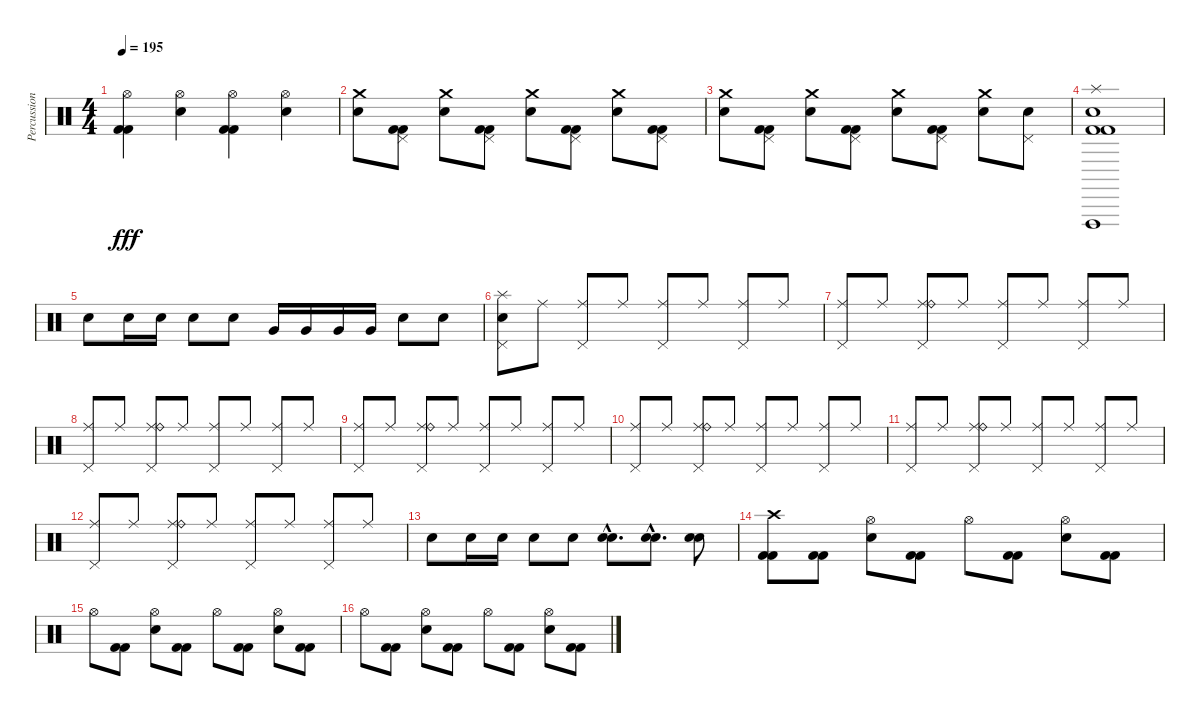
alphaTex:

\track ("Percussions" "Percussion") {instrument percussion}
\staff {score}
\articulation defaults
\ts (4 4)
\tempo 195
\clef neutral
\ks c
("Hi-Hat (open)" "Kick (hit) 2" "Kick (hit) 2").4{dy fff} ("Hi-Hat (open)" "Electric Snare (hit)").4 ("Hi-Hat (open)" "Kick (hit) 2" "Kick (hit) 2").4 ("Hi-Hat (open)" "Electric Snare (hit)").4 |
("Crash medium (hit)" "Electric Snare (hit)").8 ("Pedal Hi-Hat (hit)" "Kick (hit) 2" "Kick (hit) 2").8 ("Crash medium (hit)" "Electric Snare (hit)").8 ("Pedal Hi-Hat (hit)" "Kick (hit) 2" "Kick (hit) 2").8 ("Crash medium (hit)" "Electric Snare (hit)").8 ("Pedal Hi-Hat (hit)" "Kick (hit) 2" "Kick (hit) 2").8 ("Crash medium (hit)" "Electric Snare (hit)").8 ("Pedal Hi-Hat (hit)" "Kick (hit) 2" "Kick (hit) 2").8 |
("Crash medium (hit)" "Electric Snare (hit)").8 ("Pedal Hi-Hat (hit)" "Kick (hit) 2" "Kick (hit) 2").8 ("Crash medium (hit)" "Electric Snare (hit)").8 ("Pedal Hi-Hat (hit)" "Kick (hit) 2" "Kick (hit) 2").8 ("Crash medium (hit)" "Electric Snare (hit)").8 ("Pedal Hi-Hat (hit)" "Kick (hit) 2" "Kick (hit) 2").8 ("Crash medium (hit)" "Electric Snare (hit)").8 ("Electric Snare (hit)" "Pedal Hi-Hat (hit)").8 |
("Splash (hit)" "Electric Snare (hit)" "Vibraslap (hit)" "Kick (hit) 2" "Kick (hit) 2").1 |
"Electric Snare (hit)".8 "Electric Snare (hit)".16 "Electric Snare (hit)".16 "Electric Snare (hit)".8 "Electric Snare (hit)".8 "Very Low Tom (hit)".16 "Very Low Tom (hit)".16 "Very Low Tom (hit)".16 "Very Low Tom (hit)".16 "Electric Snare (hit)".8 "Electric Snare (hit)".8 |
("Splash (hit)" "Pedal Hi-Hat (hit)" "Electric Snare (hit)").8 "Ride (middle)".8 ("Ride (middle)" "Pedal Hi-Hat (hit)").8 "Ride (middle)".8 ("Ride (middle)" "Pedal Hi-Hat (hit)").8 "Ride (middle)".8 ("Ride (middle)" "Pedal Hi-Hat (hit)").8 "Ride (middle)".8 |
("Ride (middle)" "Pedal Hi-Hat (hit)").8 "Ride (middle)".8 ("Ride (middle)" "Pedal Hi-Hat (hit)" "Ride (bell)").8 "Ride (middle)".8 ("Ride (middle)" "Pedal Hi-Hat (hit)").8 "Ride (middle)".8 ("Ride (middle)" "Pedal Hi-Hat (hit)").8 "Ride (middle)".8 |
("Ride (middle)" "Pedal Hi-Hat (hit)").8 "Ride (middle)".8 ("Ride (middle)" "Pedal Hi-Hat (hit)" "Ride (bell)").8 "Ride (middle)".8 ("Ride (middle)" "Pedal Hi-Hat (hit)").8 "Ride (middle)".8 ("Ride (middle)" "Pedal Hi-Hat (hit)").8 "Ride (middle)".8 |
("Ride (middle)" "Pedal Hi-Hat (hit)").8 "Ride (middle)".8 ("Ride (middle)" "Pedal Hi-Hat (hit)" "Ride (bell)").8 "Ride (middle)".8 ("Ride (middle)" "Pedal Hi-Hat (hit)").8 "Ride (middle)".8 ("Ride (middle)" "Pedal Hi-Hat (hit)").8 "Ride (middle)".8 |
("Ride (middle)" "Pedal Hi-Hat (hit)").8 "Ride (middle)".8 ("Ride (middle)" "Pedal Hi-Hat (hit)" "Ride (bell)").8 "Ride (middle)".8 ("Ride (middle)" "Pedal Hi-Hat (hit)").8 "Ride (middle)".8 ("Ride (middle)" "Pedal Hi-Hat (hit)").8 "Ride (middle)".8 |
("Ride (middle)" "Pedal Hi-Hat (hit)").8 "Ride (middle)".8 ("Ride (middle)" "Pedal Hi-Hat (hit)" "Ride (bell)").8 "Ride (middle)".8 ("Ride (middle)" "Pedal Hi-Hat (hit)").8 "Ride (middle)".8 ("Ride (middle)" "Pedal Hi-Hat (hit)").8 "Ride (middle)".8 |
("Ride (middle)" "Pedal Hi-Hat (hit)").8 "Ride (middle)".8 ("Ride (middle)" "Pedal Hi-Hat (hit)" "Ride (bell)").8 "Ride (middle)".8 ("Ride (middle)" "Pedal Hi-Hat (hit)").8 "Ride (middle)".8 ("Ride (middle)" "Pedal Hi-Hat (hit)").8 "Ride (middle)".8 |
"Electric Snare (hit)".8 "Electric Snare (hit)".16 "Electric Snare (hit)".16 "Electric Snare (hit)".8 "Electric Snare (hit)".8 ("Electric Snare (hit)"{hac} "Electric Snare (hit)"{hac}).8{d} ("Electric Snare (hit)"{hac} "Electric Snare (hit)"{hac}).8{d} ("Electric Snare (hit)" "Electric Snare (hit)").8 |
("Crash high (hit)" "Kick (hit) 2" "Kick (hit) 2").8 ("Kick (hit) 2" "Kick (hit) 2").8 ("Hi-Hat (open)" "Electric Snare (hit)").8 ("Kick (hit) 2" "Kick (hit) 2").8 "Hi-Hat (open)".8 ("Kick (hit) 2" "Kick (hit) 2").8 ("Hi-Hat (open)" "Electric Snare (hit)").8 ("Kick (hit) 2" "Kick (hit) 2").8 |
"Hi-Hat (open)".8 ("Kick (hit) 2" "Kick (hit) 2").8 ("Hi-Hat (open)" "Electric Snare (hit)").8 ("Kick (hit) 2" "Kick (hit) 2").8 "Hi-Hat (open)".8 ("Kick (hit) 2" "Kick (hit) 2").8 ("Hi-Hat (open)" "Electric Snare (hit)").8 ("Kick (hit) 2" "Kick (hit) 2").8 |
"Hi-Hat (open)".8 ("Kick (hit) 2" "Kick (hit) 2").8 ("Hi-Hat (open)" "Electric Snare (hit)").8 ("Kick (hit) 2" "Kick (hit) 2").8 "Hi-Hat (open)".8 ("Kick (hit) 2" "Kick (hit) 2").8 ("Hi-Hat (open)" "Electric Snare (hit)").8 ("Kick (hit) 2" "Kick (hit) 2").8
